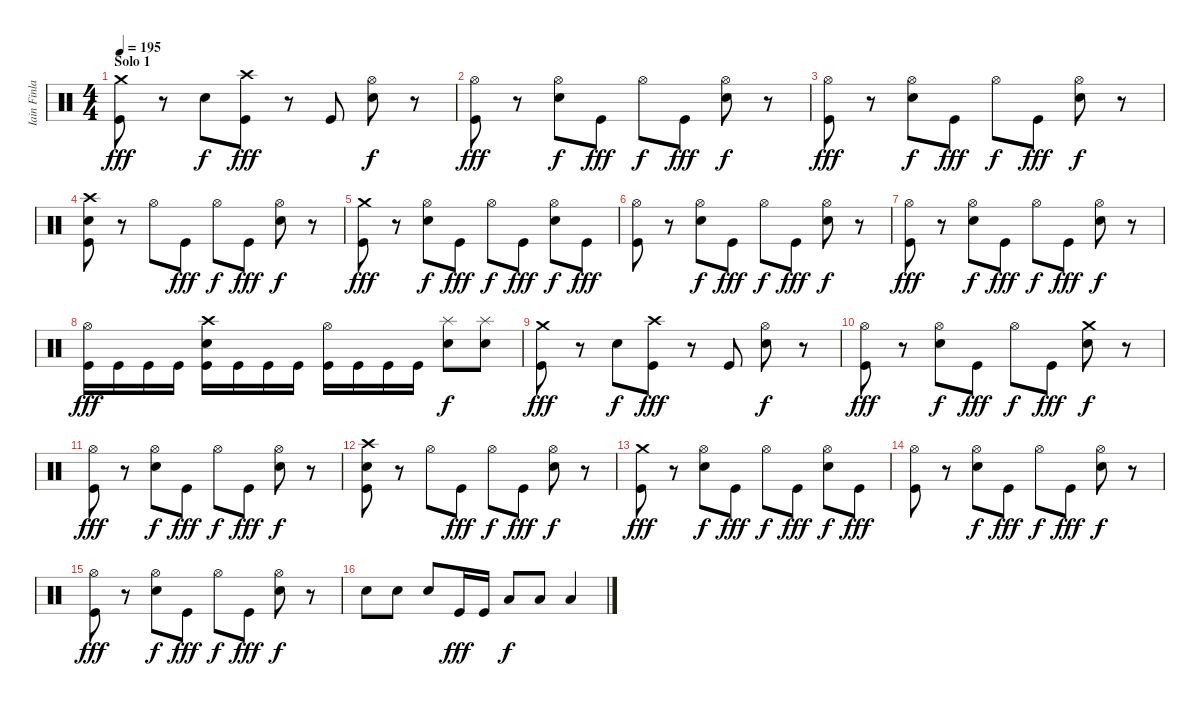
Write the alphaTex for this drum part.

\track ("Iain Finlay (Batería)" "Iain Finla") {instrument percussion}
\staff {score}
\articulation defaults
\ts (4 4)
\section ("" "Solo 1")
\tempo 195
\clef neutral
\ks c
("Crash medium (hit)" "Kick (hit)").8{dy fff} r.8 "Electric Snare (hit)".8{dy f} ("Crash high (hit)" "Kick (hit)").8{dy fff} r.8 "Kick (hit)".8 ("Hi-Hat (open)" "Electric Snare (hit)").8{dy f} r.8 |
("Hi-Hat (open)" "Kick (hit)").8{dy fff} r.8 ("Hi-Hat (open)" "Electric Snare (hit)").8{dy f} "Kick (hit)".8{dy fff} "Hi-Hat (open)".8{dy f} "Kick (hit)".8{dy fff} ("Hi-Hat (open)" "Electric Snare (hit)").8{dy f} r.8 |
("Hi-Hat (open)" "Kick (hit)").8{dy fff} r.8 ("Hi-Hat (open)" "Electric Snare (hit)").8{dy f} "Kick (hit)".8{dy fff} "Hi-Hat (open)".8{dy f} "Kick (hit)".8{dy fff} ("Hi-Hat (open)" "Electric Snare (hit)").8{dy f} r.8 |
("Crash high (hit)" "Electric Snare (hit)" "Kick (hit)").8 r.8 "Hi-Hat (open)".8 "Kick (hit)".8{dy fff} "Hi-Hat (open)".8{dy f} "Kick (hit)".8{dy fff} ("Hi-Hat (open)" "Electric Snare (hit)").8{dy f} r.8 |
("Crash medium (hit)" "Kick (hit)").8{dy fff} r.8 ("Hi-Hat (open)" "Electric Snare (hit)").8{dy f} "Kick (hit)".8{dy fff} "Hi-Hat (open)".8{dy f} "Kick (hit)".8{dy fff} ("Hi-Hat (open)" "Electric Snare (hit)").8{dy f} "Kick (hit)".8{dy fff} |
("Hi-Hat (open)" "Kick (hit)").8 r.8 ("Hi-Hat (open)" "Electric Snare (hit)").8{dy f} "Kick (hit)".8{dy fff} "Hi-Hat (open)".8{dy f} "Kick (hit)".8{dy fff} ("Hi-Hat (open)" "Electric Snare (hit)").8{dy f} r.8 |
("Hi-Hat (open)" "Kick (hit)").8{dy fff} r.8 ("Hi-Hat (open)" "Electric Snare (hit)").8{dy f} "Kick (hit)".8{dy fff} "Hi-Hat (open)".8{dy f} "Kick (hit)".8{dy fff} ("Hi-Hat (open)" "Electric Snare (hit)").8{dy f} r.8 |
("Hi-Hat (open)" "Kick (hit)").16{dy fff} "Kick (hit)".16 "Kick (hit)".16 "Kick (hit)".16 ("Crash high (hit)" "Electric Snare (hit)" "Kick (hit)").16 "Kick (hit)".16 "Kick (hit)".16 "Kick (hit)".16 ("Hi-Hat (open)" "Kick (hit)").16 "Kick (hit)".16 "Kick (hit)".16 "Kick (hit)".16 ("Splash (hit)" "Electric Snare (hit)").8{dy f} ("Splash (hit)" "Electric Snare (hit)").8 |
("Crash medium (hit)" "Kick (hit)").8{dy fff} r.8 "Electric Snare (hit)".8{dy f} ("Crash high (hit)" "Kick (hit)").8{dy fff} r.8 "Kick (hit)".8 ("Hi-Hat (open)" "Electric Snare (hit)").8{dy f} r.8 |
("Hi-Hat (open)" "Kick (hit)").8{dy fff} r.8 ("Hi-Hat (open)" "Electric Snare (hit)").8{dy f} "Kick (hit)".8{dy fff} "Hi-Hat (open)".8{dy f} "Kick (hit)".8{dy fff} ("Crash medium (hit)" "Electric Snare (hit)").8{dy f} r.8 |
("Hi-Hat (open)" "Kick (hit)").8{dy fff} r.8 ("Hi-Hat (open)" "Electric Snare (hit)").8{dy f} "Kick (hit)".8{dy fff} "Hi-Hat (open)".8{dy f} "Kick (hit)".8{dy fff} ("Hi-Hat (open)" "Electric Snare (hit)").8{dy f} r.8 |
("Crash high (hit)" "Electric Snare (hit)" "Kick (hit)").8 r.8 "Hi-Hat (open)".8 "Kick (hit)".8{dy fff} "Hi-Hat (open)".8{dy f} "Kick (hit)".8{dy fff} ("Hi-Hat (open)" "Electric Snare (hit)").8{dy f} r.8 |
("Crash medium (hit)" "Kick (hit)").8{dy fff} r.8 ("Hi-Hat (open)" "Electric Snare (hit)").8{dy f} "Kick (hit)".8{dy fff} "Hi-Hat (open)".8{dy f} "Kick (hit)".8{dy fff} ("Hi-Hat (open)" "Electric Snare (hit)").8{dy f} "Kick (hit)".8{dy fff} |
("Hi-Hat (open)" "Kick (hit)").8 r.8 ("Hi-Hat (open)" "Electric Snare (hit)").8{dy f} "Kick (hit)".8{dy fff} "Hi-Hat (open)".8{dy f} "Kick (hit)".8{dy fff} ("Hi-Hat (open)" "Electric Snare (hit)").8{dy f} r.8 |
("Hi-Hat (open)" "Kick (hit)").8{dy fff} r.8 ("Hi-Hat (open)" "Electric Snare (hit)").8{dy f} "Kick (hit)".8{dy fff} "Hi-Hat (open)".8{dy f} "Kick (hit)".8{dy fff} ("Hi-Hat (open)" "Electric Snare (hit)").8{dy f} r.8 |
"Electric Snare (hit)".8 "Electric Snare (hit)".8 "Electric Snare (hit)".8 "Kick (hit)".16{dy fff} "Kick (hit)".16 "Low Tom (hit)".8{dy f} "Low Tom (hit)".8 "Low Tom (hit)".4
